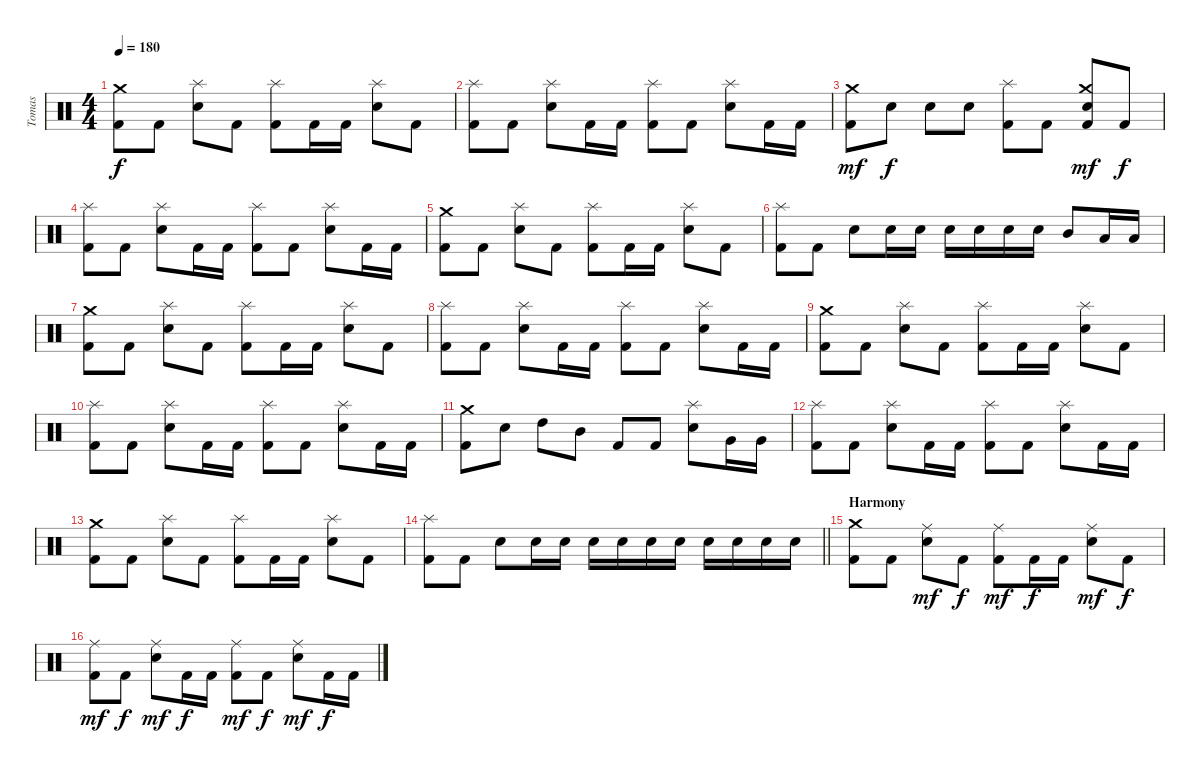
\track ("Tomas" "Tomas") {instrument percussion}
\staff {score}
\articulation defaults
\ts (4 4)
\tempo 180
\clef neutral
\ks c
("Kick (hit) 2" "Crash medium (hit)").8{dy f} "Kick (hit) 2".8 ("Electric Snare (hit)" "Splash (hit)").8 "Kick (hit) 2".8 ("Kick (hit) 2" "Splash (hit)").8 "Kick (hit) 2".16 "Kick (hit) 2".16 ("Electric Snare (hit)" "Splash (hit)").8 "Kick (hit) 2".8 |
("Kick (hit) 2" "Splash (hit)").8 "Kick (hit) 2".8 ("Electric Snare (hit)" "Splash (hit)").8 "Kick (hit) 2".16 "Kick (hit) 2".16 ("Kick (hit) 2" "Splash (hit)").8 "Kick (hit) 2".8 ("Electric Snare (hit)" "Splash (hit)").8 "Kick (hit) 2".16 "Kick (hit) 2".16 |
("Kick (hit) 2" "Crash medium (hit)").8{dy mf} "Electric Snare (hit)".8{dy f} "Electric Snare (hit)".8 "Electric Snare (hit)".8 ("Kick (hit) 2" "Splash (hit)").8 "Kick (hit) 2".8 ("Kick (hit) 2" "Electric Snare (hit)" "Crash medium (hit)").8{dy mf} "Kick (hit) 2".8{dy f} |
("Kick (hit) 2" "Splash (hit)").8 "Kick (hit) 2".8 ("Electric Snare (hit)" "Splash (hit)").8 "Kick (hit) 2".16 "Kick (hit) 2".16 ("Kick (hit) 2" "Splash (hit)").8 "Kick (hit) 2".8 ("Electric Snare (hit)" "Splash (hit)").8 "Kick (hit) 2".16 "Kick (hit) 2".16 |
("Kick (hit) 2" "Crash medium (hit)").8 "Kick (hit) 2".8 ("Electric Snare (hit)" "Splash (hit)").8 "Kick (hit) 2".8 ("Kick (hit) 2" "Splash (hit)").8 "Kick (hit) 2".16 "Kick (hit) 2".16 ("Electric Snare (hit)" "Splash (hit)").8 "Kick (hit) 2".8 |
("Kick (hit) 2" "Splash (hit)").8 "Kick (hit) 2".8 "Electric Snare (hit)".8 "Electric Snare (hit)".16 "Electric Snare (hit)".16 "Electric Snare (hit)".16 "Electric Snare (hit)".16 "Electric Snare (hit)".16 "Electric Snare (hit)".16 "Mid Tom (hit)".8 "Low Tom (hit)".16 "Low Tom (hit)".16 |
("Kick (hit) 2" "Crash medium (hit)").8 "Kick (hit) 2".8 ("Electric Snare (hit)" "Splash (hit)").8 "Kick (hit) 2".8 ("Kick (hit) 2" "Splash (hit)").8 "Kick (hit) 2".16 "Kick (hit) 2".16 ("Electric Snare (hit)" "Splash (hit)").8 "Kick (hit) 2".8 |
("Kick (hit) 2" "Splash (hit)").8 "Kick (hit) 2".8 ("Electric Snare (hit)" "Splash (hit)").8 "Kick (hit) 2".16 "Kick (hit) 2".16 ("Kick (hit) 2" "Splash (hit)").8 "Kick (hit) 2".8 ("Electric Snare (hit)" "Splash (hit)").8 "Kick (hit) 2".16 "Kick (hit) 2".16 |
("Kick (hit) 2" "Crash medium (hit)").8 "Kick (hit) 2".8 ("Electric Snare (hit)" "Splash (hit)").8 "Kick (hit) 2".8 ("Kick (hit) 2" "Splash (hit)").8 "Kick (hit) 2".16 "Kick (hit) 2".16 ("Electric Snare (hit)" "Splash (hit)").8 "Kick (hit) 2".8 |
("Kick (hit) 2" "Splash (hit)").8 "Kick (hit) 2".8 ("Electric Snare (hit)" "Splash (hit)").8 "Kick (hit) 2".16 "Kick (hit) 2".16 ("Kick (hit) 2" "Splash (hit)").8 "Kick (hit) 2".8 ("Electric Snare (hit)" "Splash (hit)").8 "Kick (hit) 2".16 "Kick (hit) 2".16 |
("Kick (hit) 2" "Crash medium (hit)").8 "Electric Snare (hit)".8 "High Tom (hit)".8 "Mid Tom (hit)".8 "Kick (hit) 2".8 "Kick (hit) 2".8 ("Electric Snare (hit)" "Splash (hit)").8 "Very Low Tom (hit)".16 "Very Low Tom (hit)".16 |
("Kick (hit) 2" "Splash (hit)").8 "Kick (hit) 2".8 ("Electric Snare (hit)" "Splash (hit)").8 "Kick (hit) 2".16 "Kick (hit) 2".16 ("Kick (hit) 2" "Splash (hit)").8 "Kick (hit) 2".8 ("Electric Snare (hit)" "Splash (hit)").8 "Kick (hit) 2".16 "Kick (hit) 2".16 |
("Kick (hit) 2" "Crash medium (hit)").8 "Kick (hit) 2".8 ("Electric Snare (hit)" "Splash (hit)").8 "Kick (hit) 2".8 ("Kick (hit) 2" "Splash (hit)").8 "Kick (hit) 2".16 "Kick (hit) 2".16 ("Electric Snare (hit)" "Splash (hit)").8 "Kick (hit) 2".8 |
\barLineRight lightlight
("Kick (hit) 2" "Splash (hit)").8 "Kick (hit) 2".8 "Electric Snare (hit)".8 "Electric Snare (hit)".16 "Electric Snare (hit)".16 "Electric Snare (hit)".16 "Electric Snare (hit)".16 "Electric Snare (hit)".16 "Electric Snare (hit)".16 "Electric Snare (hit)".16 "Electric Snare (hit)".16 "Electric Snare (hit)".16 "Electric Snare (hit)".16 |
\section ("" "Harmony")
("Kick (hit) 2" "Crash medium (hit)").8 "Kick (hit) 2".8 ("Electric Snare (hit)" "Ride (middle)").8{dy mf} "Kick (hit) 2".8{dy f} ("Kick (hit) 2" "Ride (middle)").8{dy mf} "Kick (hit) 2".16{dy f} "Kick (hit) 2".16 ("Electric Snare (hit)" "Ride (middle)").8{dy mf} "Kick (hit) 2".8{dy f} |
("Kick (hit) 2" "Ride (middle)").8{dy mf} "Kick (hit) 2".8{dy f} ("Electric Snare (hit)" "Ride (middle)").8{dy mf} "Kick (hit) 2".16{dy f} "Kick (hit) 2".16 ("Kick (hit) 2" "Ride (middle)").8{dy mf} "Kick (hit) 2".8{dy f} ("Electric Snare (hit)" "Ride (middle)").8{dy mf} "Kick (hit) 2".16{dy f} "Kick (hit) 2".16
